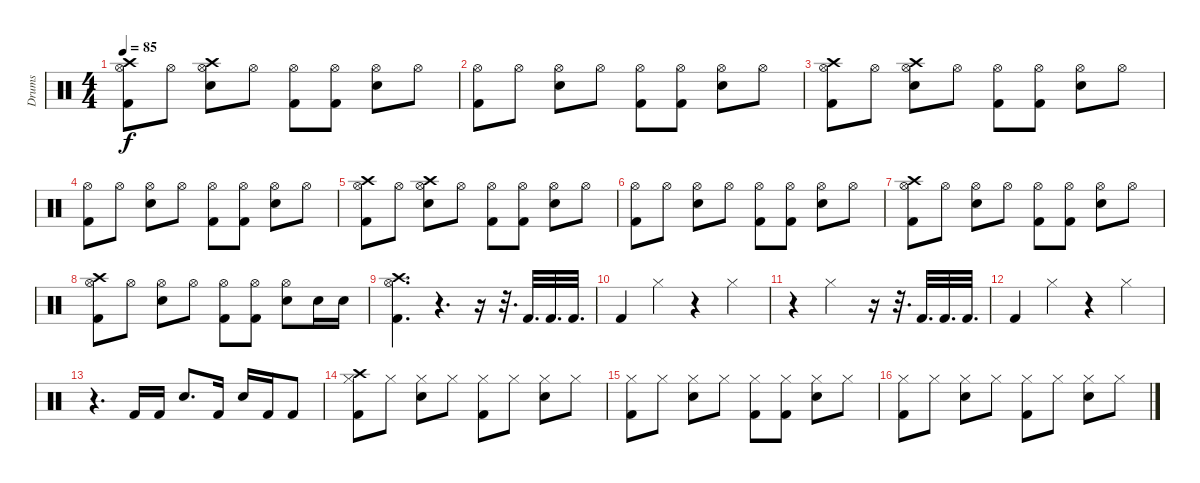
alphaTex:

\track ("Drums" "Drums") {instrument percussion}
\staff {score}
\articulation defaults
\ts (4 4)
\tempo 85
\clef neutral
\ks c
("Hi-Hat (open)" "Crash high (hit)" "Kick (hit) 2").8{dy f} "Hi-Hat (open)".8 ("Hi-Hat (open)" "Crash high (hit)" "Snare (hit) 2").8 "Hi-Hat (open)".8 ("Hi-Hat (open)" "Kick (hit) 2").8 ("Hi-Hat (open)" "Kick (hit) 2").8 ("Hi-Hat (open)" "Snare (hit) 2").8 "Hi-Hat (open)".8 |
("Hi-Hat (open)" "Kick (hit) 2").8 "Hi-Hat (open)".8 ("Hi-Hat (open)" "Snare (hit) 2").8 "Hi-Hat (open)".8 ("Hi-Hat (open)" "Kick (hit) 2").8 ("Hi-Hat (open)" "Kick (hit) 2").8 ("Hi-Hat (open)" "Snare (hit) 2").8 "Hi-Hat (open)".8 |
("Hi-Hat (open)" "Crash high (hit)" "Kick (hit) 2").8 "Hi-Hat (open)".8 ("Hi-Hat (open)" "Crash high (hit)" "Snare (hit) 2").8 "Hi-Hat (open)".8 ("Hi-Hat (open)" "Kick (hit) 2").8 ("Hi-Hat (open)" "Kick (hit) 2").8 ("Hi-Hat (open)" "Snare (hit) 2").8 "Hi-Hat (open)".8 |
("Hi-Hat (open)" "Kick (hit) 2").8 "Hi-Hat (open)".8 ("Hi-Hat (open)" "Snare (hit) 2").8 "Hi-Hat (open)".8 ("Hi-Hat (open)" "Kick (hit) 2").8 ("Hi-Hat (open)" "Kick (hit) 2").8 ("Hi-Hat (open)" "Snare (hit) 2").8 "Hi-Hat (open)".8 |
("Hi-Hat (open)" "Crash high (hit)" "Kick (hit) 2").8 "Hi-Hat (open)".8 ("Hi-Hat (open)" "Crash high (hit)" "Snare (hit) 2").8 "Hi-Hat (open)".8 ("Hi-Hat (open)" "Kick (hit) 2").8 ("Hi-Hat (open)" "Kick (hit) 2").8 ("Hi-Hat (open)" "Snare (hit) 2").8 "Hi-Hat (open)".8 |
("Hi-Hat (open)" "Kick (hit) 2").8 "Hi-Hat (open)".8 ("Hi-Hat (open)" "Snare (hit) 2").8 "Hi-Hat (open)".8 ("Hi-Hat (open)" "Kick (hit) 2").8 ("Hi-Hat (open)" "Kick (hit) 2").8 ("Hi-Hat (open)" "Snare (hit) 2").8 "Hi-Hat (open)".8 |
("Hi-Hat (open)" "Crash high (hit)" "Kick (hit) 2").8 "Hi-Hat (open)".8 ("Hi-Hat (open)" "Snare (hit) 2").8 "Hi-Hat (open)".8 ("Hi-Hat (open)" "Kick (hit) 2").8 ("Hi-Hat (open)" "Kick (hit) 2").8 ("Hi-Hat (open)" "Snare (hit) 2").8 "Hi-Hat (open)".8 |
("Hi-Hat (open)" "Crash high (hit)" "Kick (hit) 2").8 "Hi-Hat (open)".8 ("Hi-Hat (open)" "Snare (hit) 2").8 "Hi-Hat (open)".8 ("Hi-Hat (open)" "Kick (hit) 2").8 ("Hi-Hat (open)" "Kick (hit) 2").8 ("Hi-Hat (open)" "Snare (hit) 2").8 "Snare (hit) 2".16 "Snare (hit) 2".16 |
("Hi-Hat (open)" "Crash high (hit)" "Kick (hit) 2").4{d} r.4{d} r.16 r.32{d} "Kick (hit) 2".32{d} "Kick (hit) 2".32{d} "Kick (hit) 2".32{d} |
"Kick (hit) 2".4 "Hi-Hat (closed)".4 r.4 "Hi-Hat (closed)".4 |
r.4 "Hi-Hat (closed)".2 r.16 r.32{d} "Kick (hit) 2".32{d} "Kick (hit) 2".32{d} "Kick (hit) 2".32{d} |
"Kick (hit) 2".4 "Hi-Hat (closed)".4 r.4 "Hi-Hat (closed)".4 |
r.4{d} "Kick (hit) 2".16 "Kick (hit) 2".16 "Snare (hit) 2".8{d} "Kick (hit) 2".16 "Snare (hit) 2".16 "Kick (hit) 2".16 "Kick (hit) 2".8 |
("Hi-Hat (closed)" "Kick (hit) 2" "Crash high (hit)").8 "Hi-Hat (closed)".8 ("Hi-Hat (closed)" "Snare (hit) 2").8 "Hi-Hat (closed)".8 ("Hi-Hat (closed)" "Kick (hit) 2").8 "Hi-Hat (closed)".8 ("Hi-Hat (closed)" "Snare (hit) 2").8 "Hi-Hat (closed)".8 |
("Hi-Hat (closed)" "Kick (hit) 2").8 "Hi-Hat (closed)".8 ("Hi-Hat (closed)" "Snare (hit) 2").8 "Hi-Hat (closed)".8 ("Hi-Hat (closed)" "Kick (hit) 2").8 ("Hi-Hat (closed)" "Kick (hit) 2").8 ("Hi-Hat (closed)" "Snare (hit) 2").8 "Hi-Hat (closed)".8 |
("Hi-Hat (closed)" "Kick (hit) 2").8 "Hi-Hat (closed)".8 ("Hi-Hat (closed)" "Snare (hit) 2").8 "Hi-Hat (closed)".8 ("Hi-Hat (closed)" "Kick (hit) 2").8 "Hi-Hat (closed)".8 ("Hi-Hat (closed)" "Snare (hit) 2").8 "Hi-Hat (closed)".8
